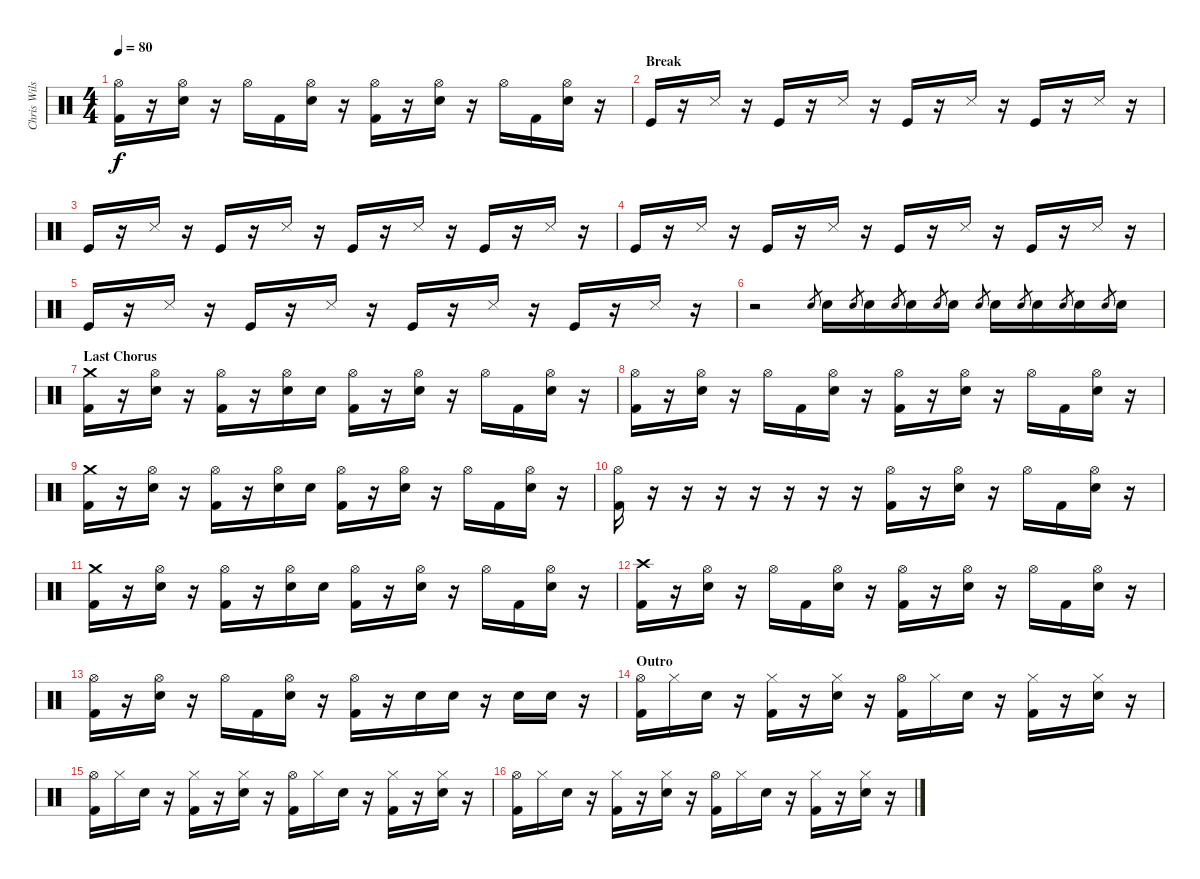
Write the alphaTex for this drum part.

\track ("Chris Wilson - Drums" "Chris Wils") {instrument percussion}
\staff {score}
\articulation defaults
\ts (4 4)
\tempo 80
\clef neutral
\ks c
("Hi-Hat (open)" "Kick (hit) 2").16{dy f} r.16 ("Hi-Hat (open)" "Snare (hit) 2").16 r.16 "Hi-Hat (open)".16 "Kick (hit) 2".16 ("Hi-Hat (open)" "Snare (hit) 2").16 r.16 ("Hi-Hat (open)" "Kick (hit) 2").16 r.16 ("Hi-Hat (open)" "Snare (hit) 2").16 r.16 "Hi-Hat (open)".16 "Kick (hit) 2".16 ("Hi-Hat (open)" "Snare (hit) 2").16 r.16 |
\section ("" "Break")
"Kick (hit)".16 r.16 "Snare (side stick) 3".16 r.16 "Kick (hit)".16 r.16 "Snare (side stick) 3".16 r.16 "Kick (hit)".16 r.16 "Snare (side stick) 3".16 r.16 "Kick (hit)".16 r.16 "Snare (side stick) 3".16 r.16 |
"Kick (hit)".16 r.16 "Snare (side stick) 3".16 r.16 "Kick (hit)".16 r.16 "Snare (side stick) 3".16 r.16 "Kick (hit)".16 r.16 "Snare (side stick) 3".16 r.16 "Kick (hit)".16 r.16 "Snare (side stick) 3".16 r.16 |
"Kick (hit)".16 r.16 "Snare (side stick) 3".16 r.16 "Kick (hit)".16 r.16 "Snare (side stick) 3".16 r.16 "Kick (hit)".16 r.16 "Snare (side stick) 3".16 r.16 "Kick (hit)".16 r.16 "Snare (side stick) 3".16 r.16 |
"Kick (hit)".16 r.16 "Snare (side stick) 3".16 r.16 "Kick (hit)".16 r.16 "Snare (side stick) 3".16 r.16 "Kick (hit)".16 r.16 "Snare (side stick) 3".16 r.16 "Kick (hit)".16 r.16 "Snare (side stick) 3".16 r.16 |
r.2{volume 15} "Snare (hit) 2".8{gr} "Snare (hit) 2".16 "Snare (hit) 2".8{gr} "Snare (hit) 2".16 "Snare (hit) 2".8{gr} "Snare (hit) 2".16 "Snare (hit) 2".8{gr} "Snare (hit) 2".16 "Snare (hit) 2".8{gr} "Snare (hit) 2".16 "Snare (hit) 2".8{gr} "Snare (hit) 2".16 "Snare (hit) 2".8{gr} "Snare (hit) 2".16 "Snare (hit) 2".8{gr} "Snare (hit) 2".16 |
\section ("" "Last Chorus")
("Crash medium (hit)" "Kick (hit) 2").16 r.16 ("Hi-Hat (open)" "Snare (hit) 2").16 r.16 ("Hi-Hat (open)" "Kick (hit) 2").16 r.16 ("Hi-Hat (open)" "Snare (hit) 2").16 "Snare (hit) 2".16 ("Hi-Hat (open)" "Kick (hit) 2").16 r.16 ("Hi-Hat (open)" "Snare (hit) 2").16 r.16 "Hi-Hat (open)".16 "Kick (hit) 2".16 ("Hi-Hat (open)" "Snare (hit) 2").16 r.16 |
("Hi-Hat (open)" "Kick (hit) 2").16 r.16 ("Hi-Hat (open)" "Snare (hit) 2").16 r.16 "Hi-Hat (open)".16 "Kick (hit) 2".16 ("Hi-Hat (open)" "Snare (hit) 2").16 r.16 ("Hi-Hat (open)" "Kick (hit) 2").16 r.16 ("Hi-Hat (open)" "Snare (hit) 2").16 r.16 "Hi-Hat (open)".16 "Kick (hit) 2".16 ("Hi-Hat (open)" "Snare (hit) 2").16 r.16 |
("Crash medium (hit)" "Kick (hit) 2").16 r.16 ("Hi-Hat (open)" "Snare (hit) 2").16 r.16 ("Hi-Hat (open)" "Kick (hit) 2").16 r.16 ("Hi-Hat (open)" "Snare (hit) 2").16 "Snare (hit) 2".16 ("Hi-Hat (open)" "Kick (hit) 2").16 r.16 ("Hi-Hat (open)" "Snare (hit) 2").16 r.16 "Hi-Hat (open)".16 "Kick (hit) 2".16 ("Hi-Hat (open)" "Snare (hit) 2").16 r.16 |
("Hi-Hat (open)" "Kick (hit) 2").16 r.16 r.16 r.16 r.16 r.16 r.16 r.16 ("Hi-Hat (open)" "Kick (hit) 2").16 r.16 ("Hi-Hat (open)" "Snare (hit) 2").16 r.16 "Hi-Hat (open)".16 "Kick (hit) 2".16 ("Hi-Hat (open)" "Snare (hit) 2").16 r.16 |
("Crash medium (hit)" "Kick (hit) 2").16 r.16 ("Hi-Hat (open)" "Snare (hit) 2").16 r.16 ("Hi-Hat (open)" "Kick (hit) 2").16 r.16 ("Hi-Hat (open)" "Snare (hit) 2").16 "Snare (hit) 2".16 ("Hi-Hat (open)" "Kick (hit) 2").16 r.16 ("Hi-Hat (open)" "Snare (hit) 2").16 r.16 "Hi-Hat (open)".16 "Kick (hit) 2".16 ("Hi-Hat (open)" "Snare (hit) 2").16 r.16 |
("Crash high (hit)" "Kick (hit) 2").16 r.16 ("Hi-Hat (open)" "Snare (hit) 2").16 r.16 "Hi-Hat (open)".16 "Kick (hit) 2".16 ("Hi-Hat (open)" "Snare (hit) 2").16 r.16 ("Hi-Hat (open)" "Kick (hit) 2").16 r.16 ("Hi-Hat (open)" "Snare (hit) 2").16 r.16 "Hi-Hat (open)".16 "Kick (hit) 2".16 ("Hi-Hat (open)" "Snare (hit) 2").16 r.16 |
("Hi-Hat (open)" "Kick (hit) 2").16 r.16 ("Hi-Hat (open)" "Snare (hit) 2").16 r.16 "Hi-Hat (open)".16 "Kick (hit) 2".16 ("Hi-Hat (open)" "Snare (hit) 2").16 r.16 ("Hi-Hat (open)" "Kick (hit) 2").16 r.16 "Snare (hit) 2".16 "Snare (hit) 2".16 r.16 "Snare (hit) 2".16 "Snare (hit) 2".16 r.16 |
\section ("" "Outro")
("Hi-Hat (open)" "Kick (hit) 2").16 "Hi-Hat (closed)".16 "Snare (hit) 2".16 r.16 ("Hi-Hat (closed)" "Kick (hit) 2").16 r.16 ("Hi-Hat (closed)" "Snare (hit) 2").16 r.16 ("Hi-Hat (open)" "Kick (hit) 2").16 "Hi-Hat (closed)".16 "Snare (hit) 2".16 r.16 ("Hi-Hat (closed)" "Kick (hit) 2").16 r.16 ("Hi-Hat (closed)" "Snare (hit) 2").16 r.16 |
("Hi-Hat (open)" "Kick (hit) 2").16 "Hi-Hat (closed)".16 "Snare (hit) 2".16 r.16 ("Hi-Hat (closed)" "Kick (hit) 2").16 r.16 ("Hi-Hat (closed)" "Snare (hit) 2").16 r.16 ("Hi-Hat (open)" "Kick (hit) 2").16 "Hi-Hat (closed)".16 "Snare (hit) 2".16 r.16 ("Hi-Hat (closed)" "Kick (hit) 2").16 r.16 ("Hi-Hat (closed)" "Snare (hit) 2").16 r.16 |
("Hi-Hat (open)" "Kick (hit) 2").16 "Hi-Hat (closed)".16 "Snare (hit) 2".16 r.16 ("Hi-Hat (closed)" "Kick (hit) 2").16 r.16 ("Hi-Hat (closed)" "Snare (hit) 2").16 r.16 ("Hi-Hat (open)" "Kick (hit) 2").16 "Hi-Hat (closed)".16 "Snare (hit) 2".16 r.16 ("Hi-Hat (closed)" "Kick (hit) 2").16 r.16 ("Hi-Hat (closed)" "Snare (hit) 2").16 r.16
